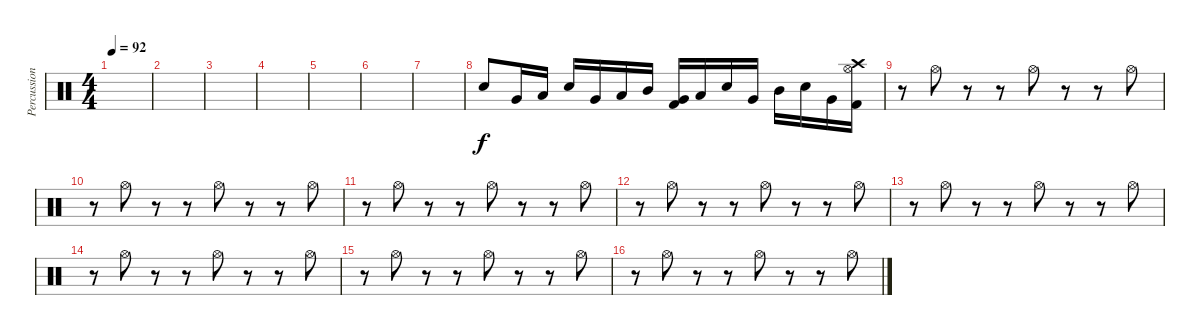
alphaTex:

\track ("Percussions" "Percussion") {instrument percussion}
\staff {score}
\articulation defaults
\ts (4 4)
\tempo 92
\clef neutral
\ks c
|
|
|
|
|
|
|
"Snare (hit) 2".8 "Very Low Tom (hit)".16 "Low Tom (hit)".16 "Electric Snare (hit)".16 "Very Low Tom (hit)".16 "Low Tom (hit)".16 "Mid Tom (hit)".16 ("Very Low Tom (hit)" "Kick (hit) 2").16 "Low Tom (hit)".16 "Electric Snare (hit)".16 "Very Low Tom (hit)".16 "Mid Tom (hit)".16 "Snare (hit) 2".16 "Very Low Tom (hit)".16 ("Hi-Hat (open)" "Crash high (hit)" "Kick (hit) 2").16 |
r.8 "Hi-Hat (open)".8 r.8 r.8 "Hi-Hat (open)".8 r.8 r.8 "Hi-Hat (open)".8 |
r.8 "Hi-Hat (open)".8 r.8 r.8 "Hi-Hat (open)".8 r.8 r.8 "Hi-Hat (open)".8 |
r.8 "Hi-Hat (open)".8 r.8 r.8 "Hi-Hat (open)".8 r.8 r.8 "Hi-Hat (open)".8 |
r.8 "Hi-Hat (open)".8 r.8 r.8 "Hi-Hat (open)".8 r.8 r.8 "Hi-Hat (open)".8 |
r.8 "Hi-Hat (open)".8 r.8 r.8 "Hi-Hat (open)".8 r.8 r.8 "Hi-Hat (open)".8 |
r.8 "Hi-Hat (open)".8 r.8 r.8 "Hi-Hat (open)".8 r.8 r.8 "Hi-Hat (open)".8 |
r.8 "Hi-Hat (open)".8 r.8 r.8 "Hi-Hat (open)".8 r.8 r.8 "Hi-Hat (open)".8 |
r.8 "Hi-Hat (open)".8 r.8 r.8 "Hi-Hat (open)".8 r.8 r.8 "Hi-Hat (open)".8
